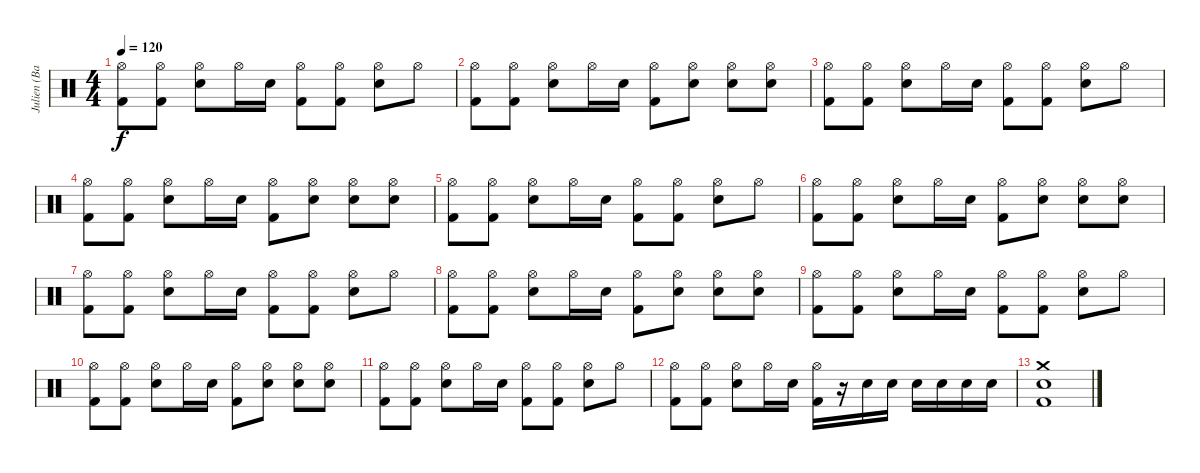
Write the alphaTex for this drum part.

\track ("Julien (Batterie)" "Julien (Ba") {instrument percussion}
\staff {score}
\articulation defaults
\ts (4 4)
\tempo 120
\clef neutral
\ks c
("Hi-Hat (open)" "Kick (hit) 2").8{dy f} ("Hi-Hat (open)" "Kick (hit) 2").8 ("Hi-Hat (open)" "Electric Snare (hit)").8 "Hi-Hat (open)".16 "Electric Snare (hit)".16 ("Hi-Hat (open)" "Kick (hit) 2").8 ("Hi-Hat (open)" "Kick (hit) 2").8 ("Hi-Hat (open)" "Electric Snare (hit)").8 "Hi-Hat (open)".8 |
("Hi-Hat (open)" "Kick (hit) 2").8 ("Hi-Hat (open)" "Kick (hit) 2").8 ("Hi-Hat (open)" "Electric Snare (hit)").8 "Hi-Hat (open)".16 "Electric Snare (hit)".16 ("Hi-Hat (open)" "Kick (hit) 2").8 ("Hi-Hat (open)" "Electric Snare (hit)").8 ("Hi-Hat (open)" "Electric Snare (hit)").8 ("Hi-Hat (open)" "Electric Snare (hit)").8 |
("Hi-Hat (open)" "Kick (hit) 2").8 ("Hi-Hat (open)" "Kick (hit) 2").8 ("Hi-Hat (open)" "Electric Snare (hit)").8 "Hi-Hat (open)".16 "Electric Snare (hit)".16 ("Hi-Hat (open)" "Kick (hit) 2").8 ("Hi-Hat (open)" "Kick (hit) 2").8 ("Hi-Hat (open)" "Electric Snare (hit)").8 "Hi-Hat (open)".8 |
("Hi-Hat (open)" "Kick (hit) 2").8 ("Hi-Hat (open)" "Kick (hit) 2").8 ("Hi-Hat (open)" "Electric Snare (hit)").8 "Hi-Hat (open)".16 "Electric Snare (hit)".16 ("Hi-Hat (open)" "Kick (hit) 2").8 ("Hi-Hat (open)" "Electric Snare (hit)").8 ("Hi-Hat (open)" "Electric Snare (hit)").8 ("Hi-Hat (open)" "Electric Snare (hit)").8 |
("Hi-Hat (open)" "Kick (hit) 2").8 ("Hi-Hat (open)" "Kick (hit) 2").8 ("Hi-Hat (open)" "Electric Snare (hit)").8 "Hi-Hat (open)".16 "Electric Snare (hit)".16 ("Hi-Hat (open)" "Kick (hit) 2").8 ("Hi-Hat (open)" "Kick (hit) 2").8 ("Hi-Hat (open)" "Electric Snare (hit)").8 "Hi-Hat (open)".8 |
("Hi-Hat (open)" "Kick (hit) 2").8 ("Hi-Hat (open)" "Kick (hit) 2").8 ("Hi-Hat (open)" "Electric Snare (hit)").8 "Hi-Hat (open)".16 "Electric Snare (hit)".16 ("Hi-Hat (open)" "Kick (hit) 2").8 ("Hi-Hat (open)" "Electric Snare (hit)").8 ("Hi-Hat (open)" "Electric Snare (hit)").8 ("Hi-Hat (open)" "Electric Snare (hit)").8 |
("Hi-Hat (open)" "Kick (hit) 2").8 ("Hi-Hat (open)" "Kick (hit) 2").8 ("Hi-Hat (open)" "Electric Snare (hit)").8 "Hi-Hat (open)".16 "Electric Snare (hit)".16 ("Hi-Hat (open)" "Kick (hit) 2").8 ("Hi-Hat (open)" "Kick (hit) 2").8 ("Hi-Hat (open)" "Electric Snare (hit)").8 "Hi-Hat (open)".8 |
("Hi-Hat (open)" "Kick (hit) 2").8 ("Hi-Hat (open)" "Kick (hit) 2").8 ("Hi-Hat (open)" "Electric Snare (hit)").8 "Hi-Hat (open)".16 "Electric Snare (hit)".16 ("Hi-Hat (open)" "Kick (hit) 2").8 ("Hi-Hat (open)" "Electric Snare (hit)").8 ("Hi-Hat (open)" "Electric Snare (hit)").8 ("Hi-Hat (open)" "Electric Snare (hit)").8 |
("Hi-Hat (open)" "Kick (hit) 2").8 ("Hi-Hat (open)" "Kick (hit) 2").8 ("Hi-Hat (open)" "Electric Snare (hit)").8 "Hi-Hat (open)".16 "Electric Snare (hit)".16 ("Hi-Hat (open)" "Kick (hit) 2").8 ("Hi-Hat (open)" "Kick (hit) 2").8 ("Hi-Hat (open)" "Electric Snare (hit)").8 "Hi-Hat (open)".8 |
("Hi-Hat (open)" "Kick (hit) 2").8 ("Hi-Hat (open)" "Kick (hit) 2").8 ("Hi-Hat (open)" "Electric Snare (hit)").8 "Hi-Hat (open)".16 "Electric Snare (hit)".16 ("Hi-Hat (open)" "Kick (hit) 2").8 ("Hi-Hat (open)" "Electric Snare (hit)").8 ("Hi-Hat (open)" "Electric Snare (hit)").8 ("Hi-Hat (open)" "Electric Snare (hit)").8 |
("Hi-Hat (open)" "Kick (hit) 2").8 ("Hi-Hat (open)" "Kick (hit) 2").8 ("Hi-Hat (open)" "Electric Snare (hit)").8 "Hi-Hat (open)".16 "Electric Snare (hit)".16 ("Hi-Hat (open)" "Kick (hit) 2").8 ("Hi-Hat (open)" "Kick (hit) 2").8 ("Hi-Hat (open)" "Electric Snare (hit)").8 "Hi-Hat (open)".8 |
("Hi-Hat (open)" "Kick (hit) 2").8 ("Hi-Hat (open)" "Kick (hit) 2").8 ("Hi-Hat (open)" "Electric Snare (hit)").8 "Hi-Hat (open)".16 "Electric Snare (hit)".16 ("Hi-Hat (open)" "Kick (hit) 2").16 r.16 "Electric Snare (hit)".16 "Electric Snare (hit)".16 "Electric Snare (hit)".16 "Electric Snare (hit)".16 "Electric Snare (hit)".16 "Electric Snare (hit)".16 |
("Crash medium (hit)" "Electric Snare (hit)" "Kick (hit) 2").1
